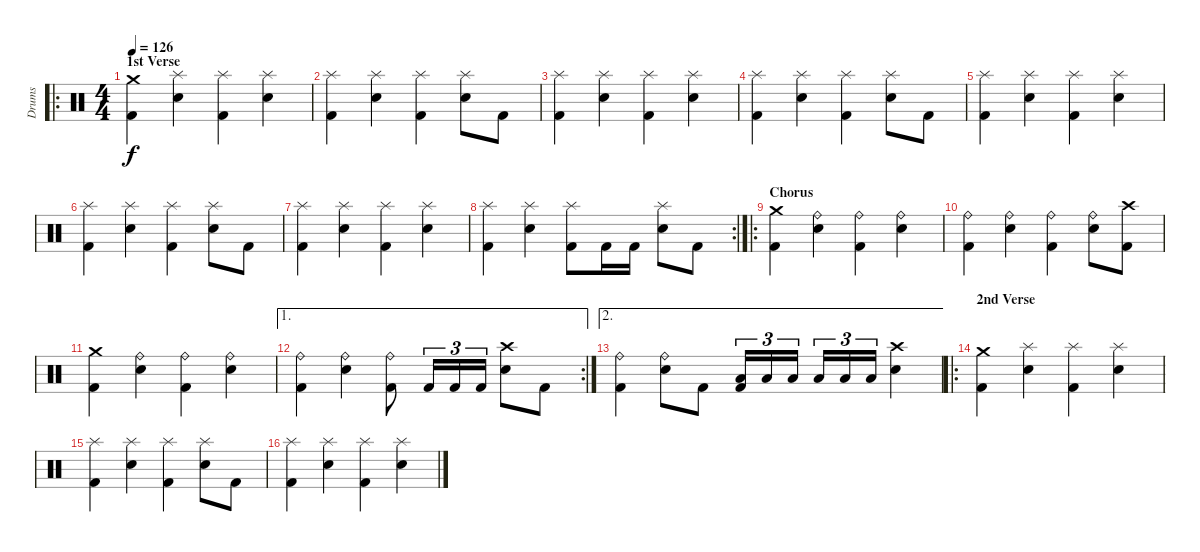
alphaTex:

\track ("Drums" "Drums") {instrument percussion}
\staff {score}
\articulation defaults
\ro
\ts (4 4)
\section ("" "1st Verse")
\tempo 126
\clef neutral
\ks c
("Kick (hit) 2" "Crash medium (hit)").4{dy f} ("Electric Snare (hit)" "Splash (hit)").4 ("Kick (hit) 2" "Splash (hit)").4 ("Electric Snare (hit)" "Splash (hit)").4 |
("Kick (hit) 2" "Splash (hit)").4 ("Electric Snare (hit)" "Splash (hit)").4 ("Kick (hit) 2" "Splash (hit)").4 ("Electric Snare (hit)" "Splash (hit)").8 "Kick (hit) 2".8 |
("Kick (hit) 2" "Splash (hit)").4 ("Electric Snare (hit)" "Splash (hit)").4 ("Kick (hit) 2" "Splash (hit)").4 ("Electric Snare (hit)" "Splash (hit)").4 |
("Kick (hit) 2" "Splash (hit)").4 ("Electric Snare (hit)" "Splash (hit)").4 ("Kick (hit) 2" "Splash (hit)").4 ("Electric Snare (hit)" "Splash (hit)").8 "Kick (hit) 2".8 |
("Kick (hit) 2" "Splash (hit)").4 ("Electric Snare (hit)" "Splash (hit)").4 ("Kick (hit) 2" "Splash (hit)").4 ("Electric Snare (hit)" "Splash (hit)").4 |
("Kick (hit) 2" "Splash (hit)").4 ("Electric Snare (hit)" "Splash (hit)").4 ("Kick (hit) 2" "Splash (hit)").4 ("Electric Snare (hit)" "Splash (hit)").8 "Kick (hit) 2".8 |
("Kick (hit) 2" "Splash (hit)").4 ("Electric Snare (hit)" "Splash (hit)").4 ("Kick (hit) 2" "Splash (hit)").4 ("Electric Snare (hit)" "Splash (hit)").4 |
\rc 2
("Kick (hit) 2" "Splash (hit)").4 ("Electric Snare (hit)" "Splash (hit)").4 ("Kick (hit) 2" "Splash (hit)").8 "Kick (hit) 2".16 "Kick (hit) 2".16 ("Electric Snare (hit)" "Splash (hit)").8 "Kick (hit) 2".8 |
\ro
\section ("" "Chorus")
("Kick (hit) 2" "Crash medium (hit)").4 ("Electric Snare (hit)" "Ride (bell)").4 ("Kick (hit) 2" "Ride (bell)").4 ("Electric Snare (hit)" "Ride (bell)").4 |
("Kick (hit) 2" "Ride (bell)").4 ("Electric Snare (hit)" "Ride (bell)").4 ("Kick (hit) 2" "Ride (bell)").4 ("Electric Snare (hit)" "Ride (bell)").8 ("Kick (hit) 2" "Crash high (hit)").8 |
("Kick (hit) 2" "Crash medium (hit)").4 ("Electric Snare (hit)" "Ride (bell)").4 ("Kick (hit) 2" "Ride (bell)").4 ("Electric Snare (hit)" "Ride (bell)").4 |
\ae 1
\rc 2
("Kick (hit) 2" "Ride (bell)").4 ("Electric Snare (hit)" "Ride (bell)").4 ("Kick (hit) 2" "Ride (bell)").8 "Kick (hit) 2".16{tu (3 2)} "Kick (hit) 2".16{tu (3 2)} "Kick (hit) 2".16{tu (3 2)} ("Electric Snare (hit)" "Crash high (hit)").8 "Kick (hit) 2".8 |
\ae 2
("Kick (hit) 2" "Ride (bell)").4 ("Electric Snare (hit)" "Ride (bell)").8 "Kick (hit) 2".8 ("Kick (hit) 2" "Low Tom (hit)").16{tu (3 2)} "Low Tom (hit)".16{tu (3 2)} "Low Tom (hit)".16{tu (3 2)} "Low Tom (hit)".16{tu (3 2)} "Low Tom (hit)".16{tu (3 2)} "Low Tom (hit)".16{tu (3 2)} ("Electric Snare (hit)" "Crash high (hit)").4 |
\ro
\section ("" "2nd Verse")
("Kick (hit) 2" "Crash medium (hit)").4 ("Electric Snare (hit)" "Splash (hit)").4 ("Kick (hit) 2" "Splash (hit)").4 ("Electric Snare (hit)" "Splash (hit)").4 |
("Kick (hit) 2" "Splash (hit)").4 ("Electric Snare (hit)" "Splash (hit)").4 ("Kick (hit) 2" "Splash (hit)").4 ("Electric Snare (hit)" "Splash (hit)").8 "Kick (hit) 2".8 |
("Kick (hit) 2" "Splash (hit)").4 ("Electric Snare (hit)" "Splash (hit)").4 ("Kick (hit) 2" "Splash (hit)").4 ("Electric Snare (hit)" "Splash (hit)").4
